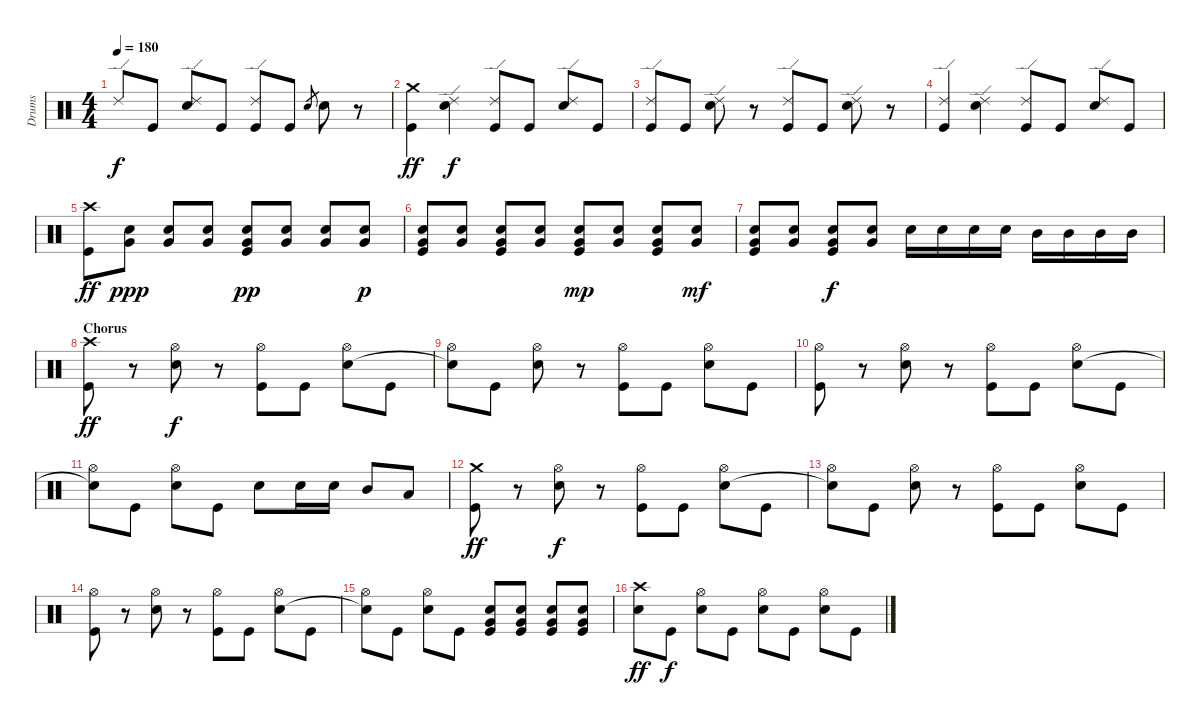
\track ("Drums" "Drums") {instrument percussion}
\staff {score}
\articulation defaults
\ts (4 4)
\tempo 180
\clef neutral
\ks c "Ride (edge) 2".8{dy f} "Kick (hit)".8
("Ride (edge) 2" "Snare (hit) 2").8 "Kick (hit)".8 ("Ride (edge) 2" "Kick (hit)").8 "Kick (hit)".8 "Snare (hit) 2".8{gr} "Snare (hit) 2".8 r.8 |
("Crash medium (hit)" "Kick (hit)").4{dy ff} ("Ride (edge) 2" "Snare (hit) 2").4{dy f} ("Ride (edge) 2" "Kick (hit)").8 "Kick (hit)".8 ("Ride (edge) 2" "Snare (hit) 2").8 "Kick (hit)".8 |
("Ride (edge) 2" "Kick (hit)").8 "Kick (hit)".8 ("Ride (edge) 2" "Snare (hit) 2").8 r.8 ("Ride (edge) 2" "Kick (hit)").8 "Kick (hit)".8 ("Ride (edge) 2" "Snare (hit) 2").8 r.8 |
("Ride (edge) 2" "Kick (hit)").4 ("Ride (edge) 2" "Snare (hit) 2").4 ("Ride (edge) 2" "Kick (hit)").8 "Kick (hit)".8 ("Ride (edge) 2" "Snare (hit) 2").8 "Kick (hit)".8 |
("Crash high (hit)" "Kick (hit)").8{dy ff} ("Very Low Tom (hit)" "Snare (hit) 2").8{dy ppp} ("Very Low Tom (hit)" "Snare (hit) 2").8 ("Very Low Tom (hit)" "Snare (hit) 2").8 ("Very Low Tom (hit)" "Snare (hit) 2" "Kick (hit)").8{dy pp} ("Very Low Tom (hit)" "Snare (hit) 2").8 ("Very Low Tom (hit)" "Snare (hit) 2").8 ("Very Low Tom (hit)" "Snare (hit) 2").8{dy p} |
("Very Low Tom (hit)" "Snare (hit) 2" "Kick (hit)").8 ("Very Low Tom (hit)" "Snare (hit) 2").8 ("Very Low Tom (hit)" "Snare (hit) 2" "Kick (hit)").8 ("Very Low Tom (hit)" "Snare (hit) 2").8 ("Very Low Tom (hit)" "Snare (hit) 2" "Kick (hit)").8{dy mp} ("Very Low Tom (hit)" "Snare (hit) 2").8 ("Very Low Tom (hit)" "Snare (hit) 2" "Kick (hit)").8 ("Very Low Tom (hit)" "Snare (hit) 2").8{dy mf} |
("Very Low Tom (hit)" "Snare (hit) 2" "Kick (hit)").8 ("Very Low Tom (hit)" "Snare (hit) 2").8 ("Very Low Tom (hit)" "Snare (hit) 2" "Kick (hit)").8{dy f} ("Very Low Tom (hit)" "Snare (hit) 2").8 "Snare (hit) 2".16 "Snare (hit) 2".16 "Snare (hit) 2".16 "Snare (hit) 2".16 "Mid Tom (hit)".16 "Mid Tom (hit)".16 "Mid Tom (hit)".16 "Mid Tom (hit)".16 |
\section ("" "Chorus")
("Crash high (hit)" "Kick (hit)").8{dy ff} r.8 ("Hi-Hat (open)" "Snare (hit) 2").8{dy f} r.8 ("Hi-Hat (open)" "Kick (hit)").8 "Kick (hit)".8 ("Hi-Hat (open)" "Snare (hit) 2").8 "Kick (hit)".8 |
("Hi-Hat (open)" "Snare (hit)"{t}).8 "Kick (hit)".8 ("Hi-Hat (open)" "Snare (hit) 2").8 r.8 ("Hi-Hat (open)" "Kick (hit)").8 "Kick (hit)".8 ("Hi-Hat (open)" "Snare (hit) 2").8 "Kick (hit)".8 |
("Hi-Hat (open)" "Kick (hit)").8 r.8 ("Hi-Hat (open)" "Snare (hit) 2").8 r.8 ("Hi-Hat (open)" "Kick (hit)").8 "Kick (hit)".8 ("Hi-Hat (open)" "Snare (hit) 2").8 "Kick (hit)".8 |
("Hi-Hat (open)" "Snare (hit)"{t}).8 "Kick (hit)".8 ("Hi-Hat (open)" "Snare (hit) 2").8 "Kick (hit)".8 "Snare (hit) 2".8 "Snare (hit) 2".16 "Snare (hit) 2".16 "Mid Tom (hit)".8 "Low Tom (hit)".8 |
("Crash medium (hit)" "Kick (hit)").8{dy ff} r.8 ("Hi-Hat (open)" "Snare (hit) 2").8{dy f} r.8 ("Hi-Hat (open)" "Kick (hit)").8 "Kick (hit)".8 ("Hi-Hat (open)" "Snare (hit) 2").8 "Kick (hit)".8 |
("Hi-Hat (open)" "Snare (hit)"{t}).8 "Kick (hit)".8 ("Hi-Hat (open)" "Snare (hit) 2").8 r.8 ("Hi-Hat (open)" "Kick (hit)").8 "Kick (hit)".8 ("Hi-Hat (open)" "Snare (hit) 2").8 "Kick (hit)".8 |
("Hi-Hat (open)" "Kick (hit)").8 r.8 ("Hi-Hat (open)" "Snare (hit) 2").8 r.8 ("Hi-Hat (open)" "Kick (hit)").8 "Kick (hit)".8 ("Hi-Hat (open)" "Snare (hit) 2").8 "Kick (hit)".8 |
("Hi-Hat (open)" "Snare (hit)"{t}).8 "Kick (hit)".8 ("Hi-Hat (open)" "Snare (hit) 2").8 "Kick (hit)".8 ("Very Low Tom (hit)" "Snare (hit) 2" "Kick (hit)").8 ("Very Low Tom (hit)" "Snare (hit) 2" "Kick (hit)").8 ("Very Low Tom (hit)" "Snare (hit) 2" "Kick (hit)").8 ("Very Low Tom (hit)" "Snare (hit) 2" "Kick (hit)").8 |
("Crash high (hit)" "Snare (hit) 2").8{dy ff} "Kick (hit)".8{dy f} ("Hi-Hat (open)" "Snare (hit) 2").8 "Kick (hit)".8 ("Hi-Hat (open)" "Snare (hit) 2").8 "Kick (hit)".8 ("Hi-Hat (open)" "Snare (hit) 2").8 "Kick (hit)".8
